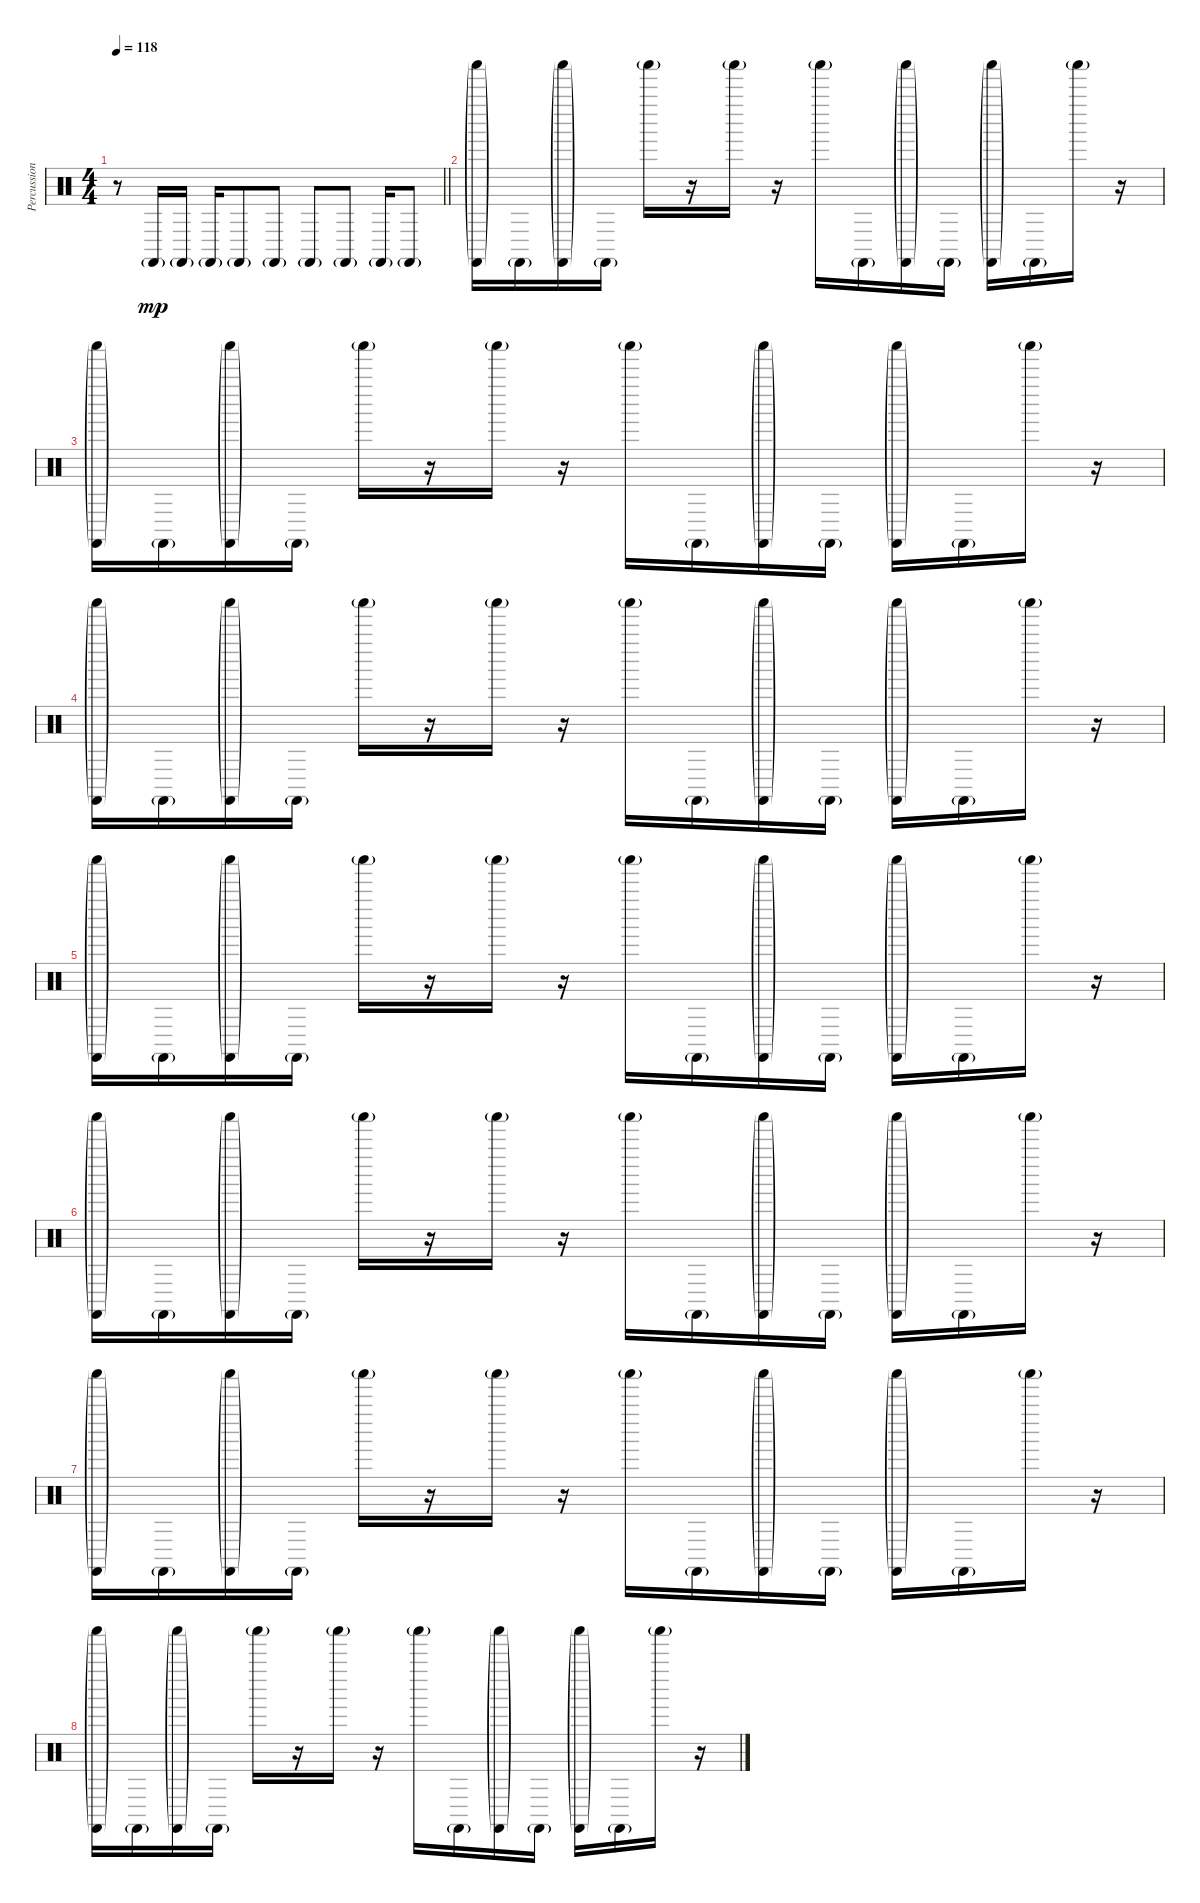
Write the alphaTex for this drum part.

\track ("Percussion" "Percussion") {instrument percussion}
\staff {score}
\articulation defaults
\ts (4 4)
\tempo 118
\clef neutral
\barLineRight lightlight
\ks c
r.8{dy mp} "Castanets (hit)"{g}.16 "Castanets (hit)"{g}.16 "Castanets (hit)"{g}.16 "Castanets (hit)"{g}.8 "Castanets (hit)"{g}.8 "Castanets (hit)"{g}.8 "Castanets (hit)"{g}.8 "Castanets (hit)"{g}.16 "Castanets (hit)"{g}.8 |
\section ("" "")
("Castanets (hit)"{g} "Shaker (hit)"{g}).16 "Castanets (hit)"{g}.16 ("Castanets (hit)"{g} "Shaker (hit)"{g}).16 "Castanets (hit)"{g}.16 "Shaker (hit)"{g}.16 r.16 "Shaker (hit)"{g}.16 r.16 "Shaker (hit)"{g}.16 "Castanets (hit)"{g}.16 ("Castanets (hit)"{g} "Shaker (hit)"{g}).16 "Castanets (hit)"{g}.16 ("Castanets (hit)"{g} "Shaker (hit)"{g}).16 "Castanets (hit)"{g}.16 "Shaker (hit)"{g}.16 r.16 |
("Castanets (hit)"{g} "Shaker (hit)"{g}).16 "Castanets (hit)"{g}.16 ("Castanets (hit)"{g} "Shaker (hit)"{g}).16 "Castanets (hit)"{g}.16 "Shaker (hit)"{g}.16 r.16 "Shaker (hit)"{g}.16 r.16 "Shaker (hit)"{g}.16 "Castanets (hit)"{g}.16 ("Castanets (hit)"{g} "Shaker (hit)"{g}).16 "Castanets (hit)"{g}.16 ("Castanets (hit)"{g} "Shaker (hit)"{g}).16 "Castanets (hit)"{g}.16 "Shaker (hit)"{g}.16 r.16 |
("Castanets (hit)"{g} "Shaker (hit)"{g}).16 "Castanets (hit)"{g}.16 ("Castanets (hit)"{g} "Shaker (hit)"{g}).16 "Castanets (hit)"{g}.16 "Shaker (hit)"{g}.16 r.16 "Shaker (hit)"{g}.16 r.16 "Shaker (hit)"{g}.16 "Castanets (hit)"{g}.16 ("Castanets (hit)"{g} "Shaker (hit)"{g}).16 "Castanets (hit)"{g}.16 ("Castanets (hit)"{g} "Shaker (hit)"{g}).16 "Castanets (hit)"{g}.16 "Shaker (hit)"{g}.16 r.16 |
("Castanets (hit)"{g} "Shaker (hit)"{g}).16 "Castanets (hit)"{g}.16 ("Castanets (hit)"{g} "Shaker (hit)"{g}).16 "Castanets (hit)"{g}.16 "Shaker (hit)"{g}.16 r.16 "Shaker (hit)"{g}.16 r.16 "Shaker (hit)"{g}.16 "Castanets (hit)"{g}.16 ("Castanets (hit)"{g} "Shaker (hit)"{g}).16 "Castanets (hit)"{g}.16 ("Castanets (hit)"{g} "Shaker (hit)"{g}).16 "Castanets (hit)"{g}.16 "Shaker (hit)"{g}.16 r.16 |
("Castanets (hit)"{g} "Shaker (hit)"{g}).16 "Castanets (hit)"{g}.16 ("Castanets (hit)"{g} "Shaker (hit)"{g}).16 "Castanets (hit)"{g}.16 "Shaker (hit)"{g}.16 r.16 "Shaker (hit)"{g}.16 r.16 "Shaker (hit)"{g}.16 "Castanets (hit)"{g}.16 ("Castanets (hit)"{g} "Shaker (hit)"{g}).16 "Castanets (hit)"{g}.16 ("Castanets (hit)"{g} "Shaker (hit)"{g}).16 "Castanets (hit)"{g}.16 "Shaker (hit)"{g}.16 r.16 |
("Castanets (hit)"{g} "Shaker (hit)"{g}).16 "Castanets (hit)"{g}.16 ("Castanets (hit)"{g} "Shaker (hit)"{g}).16 "Castanets (hit)"{g}.16 "Shaker (hit)"{g}.16 r.16 "Shaker (hit)"{g}.16 r.16 "Shaker (hit)"{g}.16 "Castanets (hit)"{g}.16 ("Castanets (hit)"{g} "Shaker (hit)"{g}).16 "Castanets (hit)"{g}.16 ("Castanets (hit)"{g} "Shaker (hit)"{g}).16 "Castanets (hit)"{g}.16 "Shaker (hit)"{g}.16 r.16 |
("Castanets (hit)"{g} "Shaker (hit)"{g}).16 "Castanets (hit)"{g}.16 ("Castanets (hit)"{g} "Shaker (hit)"{g}).16 "Castanets (hit)"{g}.16 "Shaker (hit)"{g}.16 r.16 "Shaker (hit)"{g}.16 r.16 "Shaker (hit)"{g}.16 "Castanets (hit)"{g}.16 ("Castanets (hit)"{g} "Shaker (hit)"{g}).16 "Castanets (hit)"{g}.16 ("Castanets (hit)"{g} "Shaker (hit)"{g}).16 "Castanets (hit)"{g}.16 "Shaker (hit)"{g}.16 r.16
